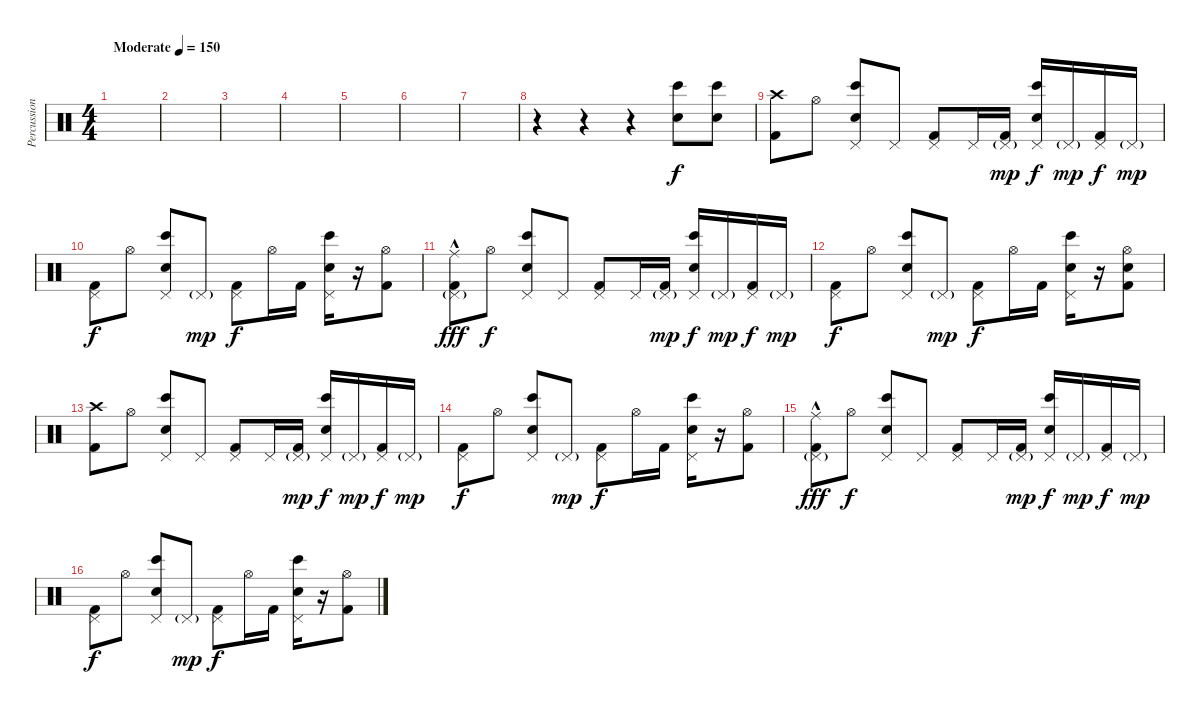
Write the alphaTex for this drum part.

\track ("Percussion" "Percussion") {instrument percussion}
\staff {score}
\articulation defaults
\ts (4 4)
\tempo (150 "Moderate")
\clef neutral
\ks c
|
|
|
|
|
|
|
r.4 r.4 r.4 ("Electric Snare (hit)" "Bongo High (hit)").8 ("Electric Snare (hit)" "Bongo High (hit)").8 |
("Crash high (hit)" "Kick (hit) 2").8 "Hi-Hat (open)".8 ("Pedal Hi-Hat (hit)" "Electric Snare (hit)" "Bongo High (hit)").8 "Pedal Hi-Hat (hit)".8 ("Pedal Hi-Hat (hit)" "Kick (hit) 2").8 "Pedal Hi-Hat (hit)".16 ("Pedal Hi-Hat (hit)"{g} "Kick (hit) 2").16{dy mp} ("Pedal Hi-Hat (hit)" "Electric Snare (hit)" "Bongo High (hit)").16{dy f} "Pedal Hi-Hat (hit)"{g}.16{dy mp} ("Pedal Hi-Hat (hit)" "Kick (hit) 2").16{dy f} "Pedal Hi-Hat (hit)"{g}.16{dy mp} |
("Pedal Hi-Hat (hit)" "Kick (hit) 2").8{dy f} "Hi-Hat (open)".8 ("Pedal Hi-Hat (hit)" "Electric Snare (hit)" "Bongo High (hit)").8 "Pedal Hi-Hat (hit)"{g}.8{dy mp} ("Pedal Hi-Hat (hit)" "Kick (hit) 2").8{dy f} "Hi-Hat (open)".16 "Kick (hit) 2".16 ("Pedal Hi-Hat (hit)" "Electric Snare (hit)" "Bongo High (hit)").16 r.16 ("Hi-Hat (open)" "Kick (hit) 2").8 |
("Ride (middle)" "Pedal Hi-Hat (hit)"{g} "Kick (hit) 2"{hac}).8{dy fff} "Hi-Hat (open)".8{dy f} ("Pedal Hi-Hat (hit)" "Electric Snare (hit)" "Bongo High (hit)").8 "Pedal Hi-Hat (hit)".8 ("Pedal Hi-Hat (hit)" "Kick (hit) 2").8 "Pedal Hi-Hat (hit)".16 ("Pedal Hi-Hat (hit)"{g} "Kick (hit) 2").16{dy mp} ("Pedal Hi-Hat (hit)" "Electric Snare (hit)" "Bongo High (hit)").16{dy f} "Pedal Hi-Hat (hit)"{g}.16{dy mp} ("Pedal Hi-Hat (hit)" "Kick (hit) 2").16{dy f} "Pedal Hi-Hat (hit)"{g}.16{dy mp} |
("Pedal Hi-Hat (hit)" "Kick (hit) 2").8{dy f} "Hi-Hat (open)".8 ("Pedal Hi-Hat (hit)" "Electric Snare (hit)" "Bongo High (hit)").8 "Pedal Hi-Hat (hit)"{g}.8{dy mp} ("Pedal Hi-Hat (hit)" "Kick (hit) 2").8{dy f} "Hi-Hat (open)".16 "Kick (hit) 2".16 ("Pedal Hi-Hat (hit)" "Electric Snare (hit)" "Bongo High (hit)").16 r.16 ("Hi-Hat (open)" "Electric Snare (hit)" "Kick (hit) 2").8 |
("Crash high (hit)" "Kick (hit) 2").8 "Hi-Hat (open)".8 ("Pedal Hi-Hat (hit)" "Electric Snare (hit)" "Bongo High (hit)").8 "Pedal Hi-Hat (hit)".8 ("Pedal Hi-Hat (hit)" "Kick (hit) 2").8 "Pedal Hi-Hat (hit)".16 ("Pedal Hi-Hat (hit)"{g} "Kick (hit) 2").16{dy mp} ("Pedal Hi-Hat (hit)" "Electric Snare (hit)" "Bongo High (hit)").16{dy f} "Pedal Hi-Hat (hit)"{g}.16{dy mp} ("Pedal Hi-Hat (hit)" "Kick (hit) 2").16{dy f} "Pedal Hi-Hat (hit)"{g}.16{dy mp} |
("Pedal Hi-Hat (hit)" "Kick (hit) 2").8{dy f} "Hi-Hat (open)".8 ("Pedal Hi-Hat (hit)" "Electric Snare (hit)" "Bongo High (hit)").8 "Pedal Hi-Hat (hit)"{g}.8{dy mp} ("Pedal Hi-Hat (hit)" "Kick (hit) 2").8{dy f} "Hi-Hat (open)".16 "Kick (hit) 2".16 ("Pedal Hi-Hat (hit)" "Electric Snare (hit)" "Bongo High (hit)").16 r.16 ("Hi-Hat (open)" "Kick (hit) 2").8 |
("Ride (middle)" "Pedal Hi-Hat (hit)"{g} "Kick (hit) 2"{hac}).8{dy fff} "Hi-Hat (open)".8{dy f} ("Pedal Hi-Hat (hit)" "Electric Snare (hit)" "Bongo High (hit)").8 "Pedal Hi-Hat (hit)".8 ("Pedal Hi-Hat (hit)" "Kick (hit) 2").8 "Pedal Hi-Hat (hit)".16 ("Pedal Hi-Hat (hit)"{g} "Kick (hit) 2").16{dy mp} ("Pedal Hi-Hat (hit)" "Electric Snare (hit)" "Bongo High (hit)").16{dy f} "Pedal Hi-Hat (hit)"{g}.16{dy mp} ("Pedal Hi-Hat (hit)" "Kick (hit) 2").16{dy f} "Pedal Hi-Hat (hit)"{g}.16{dy mp} |
("Pedal Hi-Hat (hit)" "Kick (hit) 2").8{dy f} "Hi-Hat (open)".8 ("Pedal Hi-Hat (hit)" "Electric Snare (hit)" "Bongo High (hit)").8 "Pedal Hi-Hat (hit)"{g}.8{dy mp} ("Pedal Hi-Hat (hit)" "Kick (hit) 2").8{dy f} "Hi-Hat (open)".16 "Kick (hit) 2".16 ("Pedal Hi-Hat (hit)" "Electric Snare (hit)" "Bongo High (hit)").16 r.16 ("Hi-Hat (open)" "Kick (hit) 2").8
